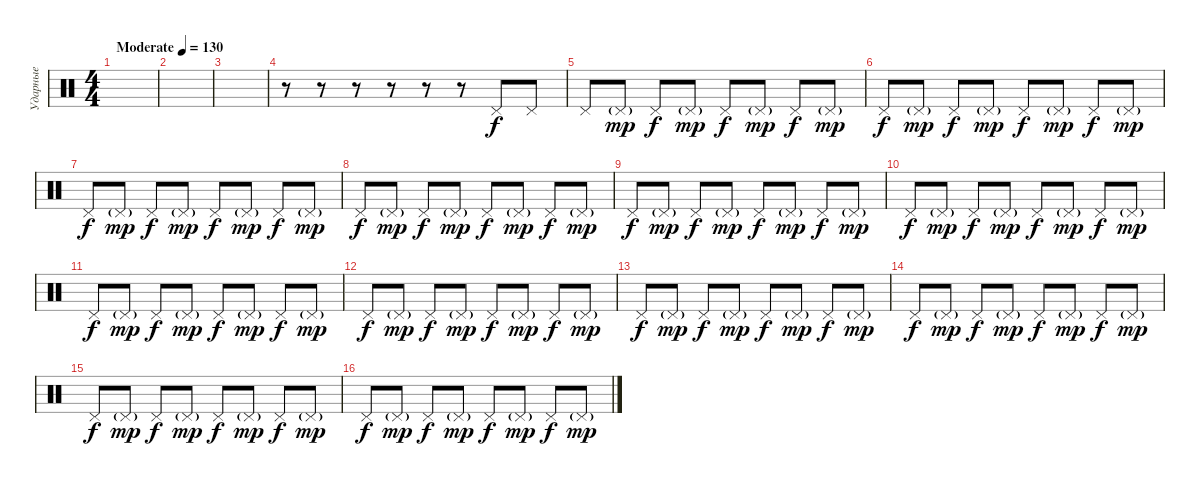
\track ("Ударные" "Ударные") {instrument percussion}
\staff {score}
\articulation defaults
\ts (4 4)
\tempo (130 "Moderate")
\clef neutral
\ks c
|
|
|
r.8 r.8 r.8 r.8 r.8 r.8 "Pedal Hi-Hat (hit)".8 "Pedal Hi-Hat (hit)".8 |
"Pedal Hi-Hat (hit)".8 "Pedal Hi-Hat (hit)"{g}.8{dy mp} "Pedal Hi-Hat (hit)".8{dy f} "Pedal Hi-Hat (hit)"{g}.8{dy mp} "Pedal Hi-Hat (hit)".8{dy f} "Pedal Hi-Hat (hit)"{g}.8{dy mp} "Pedal Hi-Hat (hit)".8{dy f} "Pedal Hi-Hat (hit)"{g}.8{dy mp} |
"Pedal Hi-Hat (hit)".8{dy f} "Pedal Hi-Hat (hit)"{g}.8{dy mp} "Pedal Hi-Hat (hit)".8{dy f} "Pedal Hi-Hat (hit)"{g}.8{dy mp} "Pedal Hi-Hat (hit)".8{dy f} "Pedal Hi-Hat (hit)"{g}.8{dy mp} "Pedal Hi-Hat (hit)".8{dy f} "Pedal Hi-Hat (hit)"{g}.8{dy mp} |
"Pedal Hi-Hat (hit)".8{dy f} "Pedal Hi-Hat (hit)"{g}.8{dy mp} "Pedal Hi-Hat (hit)".8{dy f} "Pedal Hi-Hat (hit)"{g}.8{dy mp} "Pedal Hi-Hat (hit)".8{dy f} "Pedal Hi-Hat (hit)"{g}.8{dy mp} "Pedal Hi-Hat (hit)".8{dy f} "Pedal Hi-Hat (hit)"{g}.8{dy mp} |
"Pedal Hi-Hat (hit)".8{dy f} "Pedal Hi-Hat (hit)"{g}.8{dy mp} "Pedal Hi-Hat (hit)".8{dy f} "Pedal Hi-Hat (hit)"{g}.8{dy mp} "Pedal Hi-Hat (hit)".8{dy f} "Pedal Hi-Hat (hit)"{g}.8{dy mp} "Pedal Hi-Hat (hit)".8{dy f} "Pedal Hi-Hat (hit)"{g}.8{dy mp} |
"Pedal Hi-Hat (hit)".8{dy f} "Pedal Hi-Hat (hit)"{g}.8{dy mp} "Pedal Hi-Hat (hit)".8{dy f} "Pedal Hi-Hat (hit)"{g}.8{dy mp} "Pedal Hi-Hat (hit)".8{dy f} "Pedal Hi-Hat (hit)"{g}.8{dy mp} "Pedal Hi-Hat (hit)".8{dy f} "Pedal Hi-Hat (hit)"{g}.8{dy mp} |
"Pedal Hi-Hat (hit)".8{dy f} "Pedal Hi-Hat (hit)"{g}.8{dy mp} "Pedal Hi-Hat (hit)".8{dy f} "Pedal Hi-Hat (hit)"{g}.8{dy mp} "Pedal Hi-Hat (hit)".8{dy f} "Pedal Hi-Hat (hit)"{g}.8{dy mp} "Pedal Hi-Hat (hit)".8{dy f} "Pedal Hi-Hat (hit)"{g}.8{dy mp} |
"Pedal Hi-Hat (hit)".8{dy f} "Pedal Hi-Hat (hit)"{g}.8{dy mp} "Pedal Hi-Hat (hit)".8{dy f} "Pedal Hi-Hat (hit)"{g}.8{dy mp} "Pedal Hi-Hat (hit)".8{dy f} "Pedal Hi-Hat (hit)"{g}.8{dy mp} "Pedal Hi-Hat (hit)".8{dy f} "Pedal Hi-Hat (hit)"{g}.8{dy mp} |
"Pedal Hi-Hat (hit)".8{dy f} "Pedal Hi-Hat (hit)"{g}.8{dy mp} "Pedal Hi-Hat (hit)".8{dy f} "Pedal Hi-Hat (hit)"{g}.8{dy mp} "Pedal Hi-Hat (hit)".8{dy f} "Pedal Hi-Hat (hit)"{g}.8{dy mp} "Pedal Hi-Hat (hit)".8{dy f} "Pedal Hi-Hat (hit)"{g}.8{dy mp} |
"Pedal Hi-Hat (hit)".8{dy f} "Pedal Hi-Hat (hit)"{g}.8{dy mp} "Pedal Hi-Hat (hit)".8{dy f} "Pedal Hi-Hat (hit)"{g}.8{dy mp} "Pedal Hi-Hat (hit)".8{dy f} "Pedal Hi-Hat (hit)"{g}.8{dy mp} "Pedal Hi-Hat (hit)".8{dy f} "Pedal Hi-Hat (hit)"{g}.8{dy mp} |
"Pedal Hi-Hat (hit)".8{dy f} "Pedal Hi-Hat (hit)"{g}.8{dy mp} "Pedal Hi-Hat (hit)".8{dy f} "Pedal Hi-Hat (hit)"{g}.8{dy mp} "Pedal Hi-Hat (hit)".8{dy f} "Pedal Hi-Hat (hit)"{g}.8{dy mp} "Pedal Hi-Hat (hit)".8{dy f} "Pedal Hi-Hat (hit)"{g}.8{dy mp} |
"Pedal Hi-Hat (hit)".8{dy f} "Pedal Hi-Hat (hit)"{g}.8{dy mp} "Pedal Hi-Hat (hit)".8{dy f} "Pedal Hi-Hat (hit)"{g}.8{dy mp} "Pedal Hi-Hat (hit)".8{dy f} "Pedal Hi-Hat (hit)"{g}.8{dy mp} "Pedal Hi-Hat (hit)".8{dy f} "Pedal Hi-Hat (hit)"{g}.8{dy mp} |
"Pedal Hi-Hat (hit)".8{dy f} "Pedal Hi-Hat (hit)"{g}.8{dy mp} "Pedal Hi-Hat (hit)".8{dy f} "Pedal Hi-Hat (hit)"{g}.8{dy mp} "Pedal Hi-Hat (hit)".8{dy f} "Pedal Hi-Hat (hit)"{g}.8{dy mp} "Pedal Hi-Hat (hit)".8{dy f} "Pedal Hi-Hat (hit)"{g}.8{dy mp}
